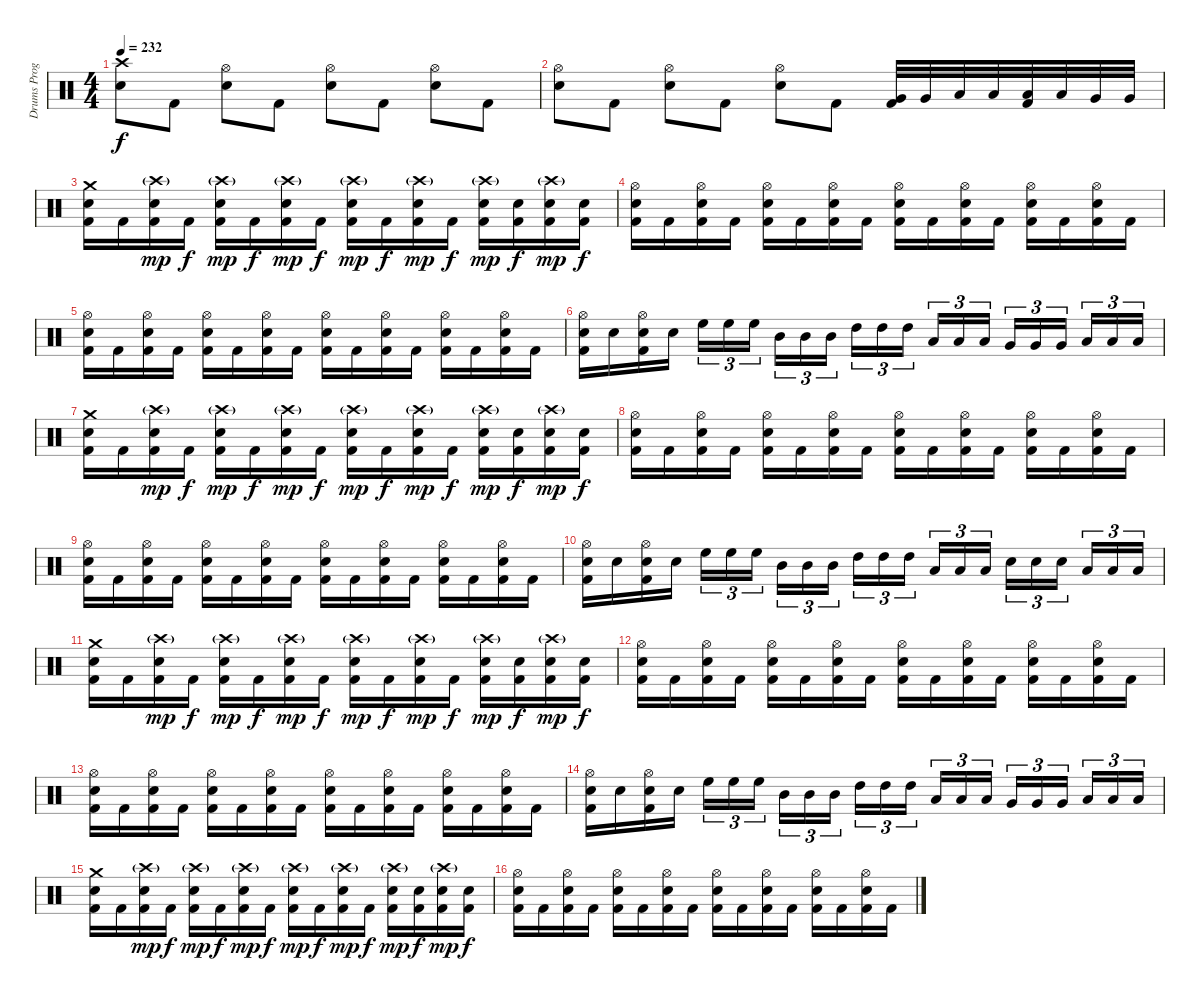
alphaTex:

\track ("Drums Programming" "Drums Prog") {instrument percussion}
\staff {score}
\articulation defaults
\ts (4 4)
\tempo 232
\clef neutral
\ks c
("Crash high (hit)" "Electric Snare (hit)").8{dy f} "Kick (hit) 2".8 ("Hi-Hat (open)" "Electric Snare (hit)").8 "Kick (hit) 2".8 ("Hi-Hat (open)" "Electric Snare (hit)").8 "Kick (hit) 2".8 ("Hi-Hat (open)" "Electric Snare (hit)").8 "Kick (hit) 2".8 |
("Hi-Hat (open)" "Electric Snare (hit)").8 "Kick (hit) 2".8 ("Hi-Hat (open)" "Electric Snare (hit)").8 "Kick (hit) 2".8 ("Hi-Hat (open)" "Electric Snare (hit)").8 "Kick (hit) 2".8 ("Very Low Tom (hit)" "Kick (hit) 2").32 "Very Low Tom (hit)".32 "Low Floor Tom (hit)".32 "Low Floor Tom (hit)".32 ("Low Tom (hit)" "Kick (hit) 2").32 "Low Tom (hit)".32 "Very Low Tom (hit)".32 "Very Low Tom (hit)".32 |
("Crash medium (hit)" "Electric Snare (hit)" "Kick (hit) 2").16 "Kick (hit) 2".16 ("Crash high (hit)"{g} "Electric Snare (hit)" "Kick (hit) 2").16{dy mp} "Kick (hit) 2".16{dy f} ("Crash high (hit)"{g} "Electric Snare (hit)" "Kick (hit) 2").16{dy mp} "Kick (hit) 2".16{dy f} ("Crash high (hit)"{g} "Electric Snare (hit)" "Kick (hit) 2").16{dy mp} "Kick (hit) 2".16{dy f} ("Crash high (hit)"{g} "Electric Snare (hit)" "Kick (hit) 2").16{dy mp} "Kick (hit) 2".16{dy f} ("Crash high (hit)"{g} "Electric Snare (hit)" "Kick (hit) 2").16{dy mp} "Kick (hit) 2".16{dy f} ("Crash high (hit)"{g} "Electric Snare (hit)" "Kick (hit) 2").16{dy mp} ("Electric Snare (hit)" "Kick (hit) 2").16{dy f} ("Crash high (hit)"{g} "Electric Snare (hit)" "Kick (hit) 2").16{dy mp} ("Electric Snare (hit)" "Kick (hit) 2").16{dy f} |
("Hi-Hat (open)" "Electric Snare (hit)" "Kick (hit) 2").16 "Kick (hit) 2".16 ("Hi-Hat (open)" "Electric Snare (hit)" "Kick (hit) 2").16 "Kick (hit) 2".16 ("Hi-Hat (open)" "Electric Snare (hit)" "Kick (hit) 2").16 "Kick (hit) 2".16 ("Hi-Hat (open)" "Electric Snare (hit)" "Kick (hit) 2").16 "Kick (hit) 2".16 ("Hi-Hat (open)" "Electric Snare (hit)" "Kick (hit) 2").16 "Kick (hit) 2".16 ("Hi-Hat (open)" "Electric Snare (hit)" "Kick (hit) 2").16 "Kick (hit) 2".16 ("Hi-Hat (open)" "Electric Snare (hit)" "Kick (hit) 2").16 "Kick (hit) 2".16 ("Hi-Hat (open)" "Electric Snare (hit)" "Kick (hit) 2").16 "Kick (hit) 2".16 |
("Hi-Hat (open)" "Electric Snare (hit)" "Kick (hit) 2").16 "Kick (hit) 2".16 ("Hi-Hat (open)" "Electric Snare (hit)" "Kick (hit) 2").16 "Kick (hit) 2".16 ("Hi-Hat (open)" "Electric Snare (hit)" "Kick (hit) 2").16 "Kick (hit) 2".16 ("Hi-Hat (open)" "Electric Snare (hit)" "Kick (hit) 2").16 "Kick (hit) 2".16 ("Hi-Hat (open)" "Electric Snare (hit)" "Kick (hit) 2").16 "Kick (hit) 2".16 ("Hi-Hat (open)" "Electric Snare (hit)" "Kick (hit) 2").16 "Kick (hit) 2".16 ("Hi-Hat (open)" "Electric Snare (hit)" "Kick (hit) 2").16 "Kick (hit) 2".16 ("Hi-Hat (open)" "Electric Snare (hit)" "Kick (hit) 2").16 "Kick (hit) 2".16 |
("Hi-Hat (open)" "Electric Snare (hit)" "Kick (hit) 2").16 "Electric Snare (hit)".16 ("Hi-Hat (open)" "Electric Snare (hit)" "Kick (hit) 2").16 "Electric Snare (hit)".16 "High Floor Tom (hit)".16{tu (3 2)} "High Floor Tom (hit)".16{tu (3 2)} "High Floor Tom (hit)".16{tu (3 2)} "Mid Tom (hit)".16{tu (3 2)} "Mid Tom (hit)".16{tu (3 2)} "Mid Tom (hit)".16{tu (3 2)} "High Tom (hit)".16{tu (3 2)} "High Tom (hit)".16{tu (3 2)} "High Tom (hit)".16{tu (3 2)} "Low Tom (hit)".16{tu (3 2)} "Low Tom (hit)".16{tu (3 2)} "Low Tom (hit)".16{tu (3 2)} "Very Low Tom (hit)".16{tu (3 2)} "Very Low Tom (hit)".16{tu (3 2)} "Very Low Tom (hit)".16{tu (3 2)} "Low Floor Tom (hit)".16{tu (3 2)} "Low Floor Tom (hit)".16{tu (3 2)} "Low Floor Tom (hit)".16{tu (3 2)} |
("Crash medium (hit)" "Electric Snare (hit)" "Kick (hit) 2").16 "Kick (hit) 2".16 ("Crash high (hit)"{g} "Electric Snare (hit)" "Kick (hit) 2").16{dy mp} "Kick (hit) 2".16{dy f} ("Crash high (hit)"{g} "Electric Snare (hit)" "Kick (hit) 2").16{dy mp} "Kick (hit) 2".16{dy f} ("Crash high (hit)"{g} "Electric Snare (hit)" "Kick (hit) 2").16{dy mp} "Kick (hit) 2".16{dy f} ("Crash high (hit)"{g} "Electric Snare (hit)" "Kick (hit) 2").16{dy mp} "Kick (hit) 2".16{dy f} ("Crash high (hit)"{g} "Electric Snare (hit)" "Kick (hit) 2").16{dy mp} "Kick (hit) 2".16{dy f} ("Crash high (hit)"{g} "Electric Snare (hit)" "Kick (hit) 2").16{dy mp} ("Electric Snare (hit)" "Kick (hit) 2").16{dy f} ("Crash high (hit)"{g} "Electric Snare (hit)" "Kick (hit) 2").16{dy mp} ("Electric Snare (hit)" "Kick (hit) 2").16{dy f} |
("Hi-Hat (open)" "Electric Snare (hit)" "Kick (hit) 2").16 "Kick (hit) 2".16 ("Hi-Hat (open)" "Electric Snare (hit)" "Kick (hit) 2").16 "Kick (hit) 2".16 ("Hi-Hat (open)" "Electric Snare (hit)" "Kick (hit) 2").16 "Kick (hit) 2".16 ("Hi-Hat (open)" "Electric Snare (hit)" "Kick (hit) 2").16 "Kick (hit) 2".16 ("Hi-Hat (open)" "Electric Snare (hit)" "Kick (hit) 2").16 "Kick (hit) 2".16 ("Hi-Hat (open)" "Electric Snare (hit)" "Kick (hit) 2").16 "Kick (hit) 2".16 ("Hi-Hat (open)" "Electric Snare (hit)" "Kick (hit) 2").16 "Kick (hit) 2".16 ("Hi-Hat (open)" "Electric Snare (hit)" "Kick (hit) 2").16 "Kick (hit) 2".16 |
("Hi-Hat (open)" "Electric Snare (hit)" "Kick (hit) 2").16 "Kick (hit) 2".16 ("Hi-Hat (open)" "Electric Snare (hit)" "Kick (hit) 2").16 "Kick (hit) 2".16 ("Hi-Hat (open)" "Electric Snare (hit)" "Kick (hit) 2").16 "Kick (hit) 2".16 ("Hi-Hat (open)" "Electric Snare (hit)" "Kick (hit) 2").16 "Kick (hit) 2".16 ("Hi-Hat (open)" "Electric Snare (hit)" "Kick (hit) 2").16 "Kick (hit) 2".16 ("Hi-Hat (open)" "Electric Snare (hit)" "Kick (hit) 2").16 "Kick (hit) 2".16 ("Hi-Hat (open)" "Electric Snare (hit)" "Kick (hit) 2").16 "Kick (hit) 2".16 ("Hi-Hat (open)" "Electric Snare (hit)" "Kick (hit) 2").16 "Kick (hit) 2".16 |
("Hi-Hat (open)" "Electric Snare (hit)" "Kick (hit) 2").16 "Electric Snare (hit)".16 ("Hi-Hat (open)" "Electric Snare (hit)" "Kick (hit) 2").16 "Electric Snare (hit)".16 "High Floor Tom (hit)".16{tu (3 2)} "High Floor Tom (hit)".16{tu (3 2)} "High Floor Tom (hit)".16{tu (3 2)} "Mid Tom (hit)".16{tu (3 2)} "Mid Tom (hit)".16{tu (3 2)} "Mid Tom (hit)".16{tu (3 2)} "High Tom (hit)".16{tu (3 2)} "High Tom (hit)".16{tu (3 2)} "High Tom (hit)".16{tu (3 2)} "Low Tom (hit)".16{tu (3 2)} "Low Tom (hit)".16{tu (3 2)} "Low Tom (hit)".16{tu (3 2)} "Electric Snare (hit)".16{tu (3 2)} "Electric Snare (hit)".16{tu (3 2)} "Electric Snare (hit)".16{tu (3 2)} "Low Floor Tom (hit)".16{tu (3 2)} "Low Floor Tom (hit)".16{tu (3 2)} "Low Floor Tom (hit)".16{tu (3 2)} |
("Crash medium (hit)" "Electric Snare (hit)" "Kick (hit) 2").16 "Kick (hit) 2".16 ("Crash high (hit)"{g} "Electric Snare (hit)" "Kick (hit) 2").16{dy mp} "Kick (hit) 2".16{dy f} ("Crash high (hit)"{g} "Electric Snare (hit)" "Kick (hit) 2").16{dy mp} "Kick (hit) 2".16{dy f} ("Crash high (hit)"{g} "Electric Snare (hit)" "Kick (hit) 2").16{dy mp} "Kick (hit) 2".16{dy f} ("Crash high (hit)"{g} "Electric Snare (hit)" "Kick (hit) 2").16{dy mp} "Kick (hit) 2".16{dy f} ("Crash high (hit)"{g} "Electric Snare (hit)" "Kick (hit) 2").16{dy mp} "Kick (hit) 2".16{dy f} ("Crash high (hit)"{g} "Electric Snare (hit)" "Kick (hit) 2").16{dy mp} ("Electric Snare (hit)" "Kick (hit) 2").16{dy f} ("Crash high (hit)"{g} "Electric Snare (hit)" "Kick (hit) 2").16{dy mp} ("Electric Snare (hit)" "Kick (hit) 2").16{dy f} |
("Hi-Hat (open)" "Electric Snare (hit)" "Kick (hit) 2").16 "Kick (hit) 2".16 ("Hi-Hat (open)" "Electric Snare (hit)" "Kick (hit) 2").16 "Kick (hit) 2".16 ("Hi-Hat (open)" "Electric Snare (hit)" "Kick (hit) 2").16 "Kick (hit) 2".16 ("Hi-Hat (open)" "Electric Snare (hit)" "Kick (hit) 2").16 "Kick (hit) 2".16 ("Hi-Hat (open)" "Electric Snare (hit)" "Kick (hit) 2").16 "Kick (hit) 2".16 ("Hi-Hat (open)" "Electric Snare (hit)" "Kick (hit) 2").16 "Kick (hit) 2".16 ("Hi-Hat (open)" "Electric Snare (hit)" "Kick (hit) 2").16 "Kick (hit) 2".16 ("Hi-Hat (open)" "Electric Snare (hit)" "Kick (hit) 2").16 "Kick (hit) 2".16 |
("Hi-Hat (open)" "Electric Snare (hit)" "Kick (hit) 2").16 "Kick (hit) 2".16 ("Hi-Hat (open)" "Electric Snare (hit)" "Kick (hit) 2").16 "Kick (hit) 2".16 ("Hi-Hat (open)" "Electric Snare (hit)" "Kick (hit) 2").16 "Kick (hit) 2".16 ("Hi-Hat (open)" "Electric Snare (hit)" "Kick (hit) 2").16 "Kick (hit) 2".16 ("Hi-Hat (open)" "Electric Snare (hit)" "Kick (hit) 2").16 "Kick (hit) 2".16 ("Hi-Hat (open)" "Electric Snare (hit)" "Kick (hit) 2").16 "Kick (hit) 2".16 ("Hi-Hat (open)" "Electric Snare (hit)" "Kick (hit) 2").16 "Kick (hit) 2".16 ("Hi-Hat (open)" "Electric Snare (hit)" "Kick (hit) 2").16 "Kick (hit) 2".16 |
("Hi-Hat (open)" "Electric Snare (hit)" "Kick (hit) 2").16 "Electric Snare (hit)".16 ("Hi-Hat (open)" "Electric Snare (hit)" "Kick (hit) 2").16 "Electric Snare (hit)".16 "High Floor Tom (hit)".16{tu (3 2)} "High Floor Tom (hit)".16{tu (3 2)} "High Floor Tom (hit)".16{tu (3 2)} "Mid Tom (hit)".16{tu (3 2)} "Mid Tom (hit)".16{tu (3 2)} "Mid Tom (hit)".16{tu (3 2)} "High Tom (hit)".16{tu (3 2)} "High Tom (hit)".16{tu (3 2)} "High Tom (hit)".16{tu (3 2)} "Low Tom (hit)".16{tu (3 2)} "Low Tom (hit)".16{tu (3 2)} "Low Tom (hit)".16{tu (3 2)} "Very Low Tom (hit)".16{tu (3 2)} "Very Low Tom (hit)".16{tu (3 2)} "Very Low Tom (hit)".16{tu (3 2)} "Low Floor Tom (hit)".16{tu (3 2)} "Low Floor Tom (hit)".16{tu (3 2)} "Low Floor Tom (hit)".16{tu (3 2)} |
("Crash medium (hit)" "Electric Snare (hit)" "Kick (hit) 2").16 "Kick (hit) 2".16 ("Crash high (hit)"{g} "Electric Snare (hit)" "Kick (hit) 2").16{dy mp} "Kick (hit) 2".16{dy f} ("Crash high (hit)"{g} "Electric Snare (hit)" "Kick (hit) 2").16{dy mp} "Kick (hit) 2".16{dy f} ("Crash high (hit)"{g} "Electric Snare (hit)" "Kick (hit) 2").16{dy mp} "Kick (hit) 2".16{dy f} ("Crash high (hit)"{g} "Electric Snare (hit)" "Kick (hit) 2").16{dy mp} "Kick (hit) 2".16{dy f} ("Crash high (hit)"{g} "Electric Snare (hit)" "Kick (hit) 2").16{dy mp} "Kick (hit) 2".16{dy f} ("Crash high (hit)"{g} "Electric Snare (hit)" "Kick (hit) 2").16{dy mp} ("Electric Snare (hit)" "Kick (hit) 2").16{dy f} ("Crash high (hit)"{g} "Electric Snare (hit)" "Kick (hit) 2").16{dy mp} ("Electric Snare (hit)" "Kick (hit) 2").16{dy f} |
("Hi-Hat (open)" "Electric Snare (hit)" "Kick (hit) 2").16 "Kick (hit) 2".16 ("Hi-Hat (open)" "Electric Snare (hit)" "Kick (hit) 2").16 "Kick (hit) 2".16 ("Hi-Hat (open)" "Electric Snare (hit)" "Kick (hit) 2").16 "Kick (hit) 2".16 ("Hi-Hat (open)" "Electric Snare (hit)" "Kick (hit) 2").16 "Kick (hit) 2".16 ("Hi-Hat (open)" "Electric Snare (hit)" "Kick (hit) 2").16 "Kick (hit) 2".16 ("Hi-Hat (open)" "Electric Snare (hit)" "Kick (hit) 2").16 "Kick (hit) 2".16 ("Hi-Hat (open)" "Electric Snare (hit)" "Kick (hit) 2").16 "Kick (hit) 2".16 ("Hi-Hat (open)" "Electric Snare (hit)" "Kick (hit) 2").16 "Kick (hit) 2".16
